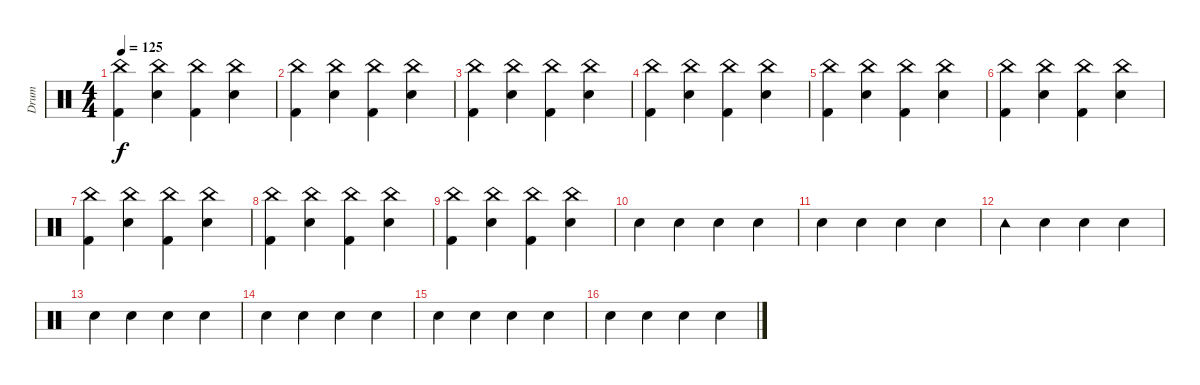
\track ("Drum" "Drum") {instrument percussion}
\staff {score}
\articulation defaults
\ts (4 4)
\tempo 125
\clef neutral
\ks c
("China (hit)" "Kick (hit) 2").4{dy f} ("China (hit)" "Snare (hit) 2").4 ("China (hit)" "Kick (hit) 2").4 ("China (hit)" "Snare (hit) 2").4 |
("China (hit)" "Kick (hit) 2").4 ("China (hit)" "Snare (hit) 2").4 ("China (hit)" "Kick (hit) 2").4 ("China (hit)" "Snare (hit) 2").4 |
("China (hit)" "Kick (hit) 2").4 ("China (hit)" "Snare (hit) 2").4 ("China (hit)" "Kick (hit) 2").4 ("China (hit)" "Snare (hit) 2").4 |
("China (hit)" "Kick (hit) 2").4 ("China (hit)" "Snare (hit) 2").4 ("China (hit)" "Kick (hit) 2").4 ("China (hit)" "Snare (hit) 2").4 |
("China (hit)" "Kick (hit) 2").4 ("China (hit)" "Snare (hit) 2").4 ("China (hit)" "Kick (hit) 2").4 ("China (hit)" "Snare (hit) 2").4 |
("China (hit)" "Kick (hit) 2").4 ("China (hit)" "Snare (hit) 2").4 ("China (hit)" "Kick (hit) 2").4 ("China (hit)" "Snare (hit) 2").4 |
("China (hit)" "Kick (hit) 2").4 ("China (hit)" "Snare (hit) 2").4 ("China (hit)" "Kick (hit) 2").4 ("China (hit)" "Snare (hit) 2").4 |
("China (hit)" "Kick (hit) 2").4 ("China (hit)" "Snare (hit) 2").4 ("China (hit)" "Kick (hit) 2").4 ("China (hit)" "Snare (hit) 2").4 |
("China (hit)" "Kick (hit) 2").4 ("China (hit)" "Snare (hit) 2").4 ("China (hit)" "Kick (hit) 2").4 ("China (hit)" "Snare (hit) 2").4 |
"Snare (hit) 2".4 "Snare (hit) 2".4 "Snare (hit) 2".4 "Snare (hit) 2".4 |
"Snare (hit) 2".4 "Snare (hit) 2".4 "Snare (hit) 2".4 "Snare (hit) 2".4 |
"Tambourine (hit)".4 "Snare (hit) 2".4 "Snare (hit) 2".4 "Snare (hit) 2".4 |
"Snare (hit) 2".4 "Snare (hit) 2".4 "Snare (hit) 2".4 "Snare (hit) 2".4 |
"Snare (hit) 2".4 "Snare (hit) 2".4 "Snare (hit) 2".4 "Snare (hit) 2".4 |
"Snare (hit) 2".4 "Snare (hit) 2".4 "Snare (hit) 2".4 "Snare (hit) 2".4 |
"Snare (hit) 2".4 "Snare (hit) 2".4 "Snare (hit) 2".4 "Snare (hit) 2".4
